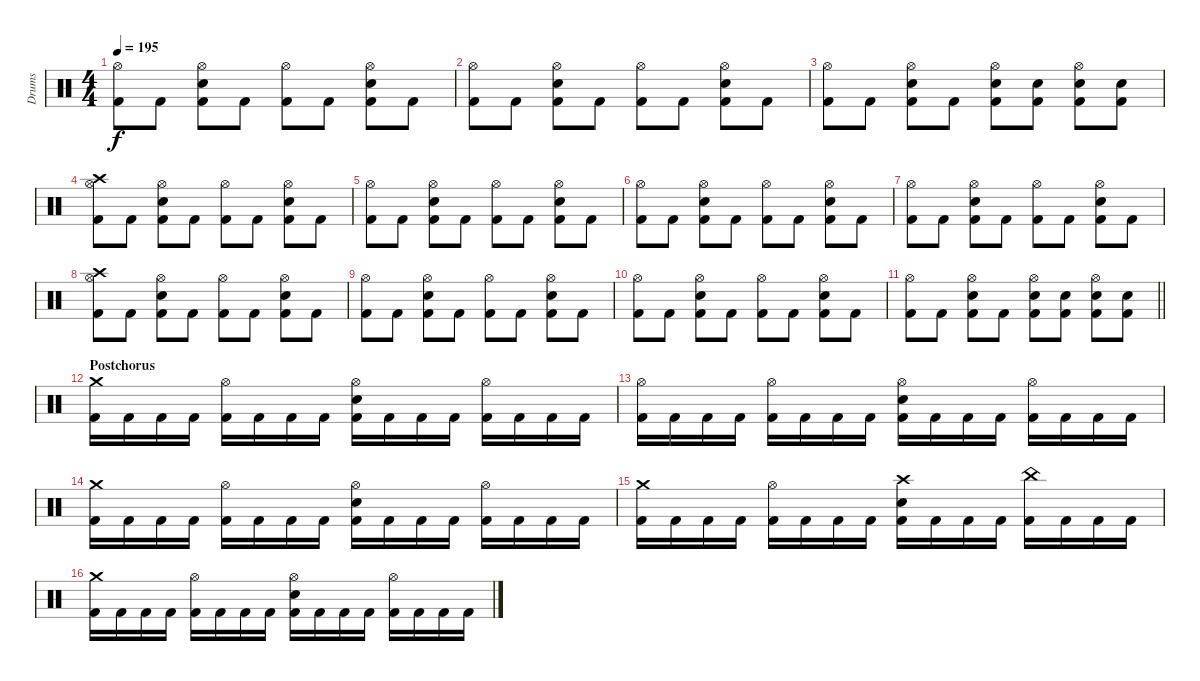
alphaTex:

\track ("Drums" "Drums") {instrument percussion}
\staff {score}
\articulation defaults
\ts (4 4)
\tempo 195
\clef neutral
\ks c
("Hi-Hat (open)" "Kick (hit) 2").8{dy f} "Kick (hit) 2".8 ("Hi-Hat (open)" "Snare (hit) 2" "Kick (hit) 2").8 "Kick (hit) 2".8 ("Hi-Hat (open)" "Kick (hit) 2").8 "Kick (hit) 2".8 ("Hi-Hat (open)" "Snare (hit) 2" "Kick (hit) 2").8 "Kick (hit) 2".8 |
("Hi-Hat (open)" "Kick (hit) 2").8 "Kick (hit) 2".8 ("Hi-Hat (open)" "Snare (hit) 2" "Kick (hit) 2").8 "Kick (hit) 2".8 ("Hi-Hat (open)" "Kick (hit) 2").8 "Kick (hit) 2".8 ("Hi-Hat (open)" "Snare (hit) 2" "Kick (hit) 2").8 "Kick (hit) 2".8 |
("Hi-Hat (open)" "Kick (hit) 2").8 "Kick (hit) 2".8 ("Hi-Hat (open)" "Snare (hit) 2" "Kick (hit) 2").8 "Kick (hit) 2".8 ("Hi-Hat (open)" "Snare (hit) 2" "Kick (hit) 2").8 ("Snare (hit) 2" "Kick (hit) 2").8 ("Hi-Hat (open)" "Snare (hit) 2" "Kick (hit) 2").8 ("Snare (hit) 2" "Kick (hit) 2").8 |
("Crash high (hit)" "Hi-Hat (open)" "Kick (hit) 2").8 "Kick (hit) 2".8 ("Hi-Hat (open)" "Snare (hit) 2" "Kick (hit) 2").8 "Kick (hit) 2".8 ("Hi-Hat (open)" "Kick (hit) 2").8 "Kick (hit) 2".8 ("Hi-Hat (open)" "Snare (hit) 2" "Kick (hit) 2").8 "Kick (hit) 2".8 |
("Hi-Hat (open)" "Kick (hit) 2").8 "Kick (hit) 2".8 ("Hi-Hat (open)" "Snare (hit) 2" "Kick (hit) 2").8 "Kick (hit) 2".8 ("Hi-Hat (open)" "Kick (hit) 2").8 "Kick (hit) 2".8 ("Hi-Hat (open)" "Snare (hit) 2" "Kick (hit) 2").8 "Kick (hit) 2".8 |
("Hi-Hat (open)" "Kick (hit) 2").8 "Kick (hit) 2".8 ("Hi-Hat (open)" "Snare (hit) 2" "Kick (hit) 2").8 "Kick (hit) 2".8 ("Hi-Hat (open)" "Kick (hit) 2").8 "Kick (hit) 2".8 ("Hi-Hat (open)" "Snare (hit) 2" "Kick (hit) 2").8 "Kick (hit) 2".8 |
("Hi-Hat (open)" "Kick (hit) 2").8 "Kick (hit) 2".8 ("Hi-Hat (open)" "Snare (hit) 2" "Kick (hit) 2").8 "Kick (hit) 2".8 ("Hi-Hat (open)" "Kick (hit) 2").8 "Kick (hit) 2".8 ("Hi-Hat (open)" "Snare (hit) 2" "Kick (hit) 2").8 "Kick (hit) 2".8 |
("Crash high (hit)" "Hi-Hat (open)" "Kick (hit) 2").8 "Kick (hit) 2".8 ("Hi-Hat (open)" "Snare (hit) 2" "Kick (hit) 2").8 "Kick (hit) 2".8 ("Hi-Hat (open)" "Kick (hit) 2").8 "Kick (hit) 2".8 ("Hi-Hat (open)" "Snare (hit) 2" "Kick (hit) 2").8 "Kick (hit) 2".8 |
("Hi-Hat (open)" "Kick (hit) 2").8 "Kick (hit) 2".8 ("Hi-Hat (open)" "Snare (hit) 2" "Kick (hit) 2").8 "Kick (hit) 2".8 ("Hi-Hat (open)" "Kick (hit) 2").8 "Kick (hit) 2".8 ("Hi-Hat (open)" "Snare (hit) 2" "Kick (hit) 2").8 "Kick (hit) 2".8 |
("Hi-Hat (open)" "Kick (hit) 2").8 "Kick (hit) 2".8 ("Hi-Hat (open)" "Snare (hit) 2" "Kick (hit) 2").8 "Kick (hit) 2".8 ("Hi-Hat (open)" "Kick (hit) 2").8 "Kick (hit) 2".8 ("Hi-Hat (open)" "Snare (hit) 2" "Kick (hit) 2").8 "Kick (hit) 2".8 |
\barLineRight lightlight
("Hi-Hat (open)" "Kick (hit) 2").8 "Kick (hit) 2".8 ("Hi-Hat (open)" "Snare (hit) 2" "Kick (hit) 2").8 "Kick (hit) 2".8 ("Hi-Hat (open)" "Snare (hit) 2" "Kick (hit) 2").8 ("Snare (hit) 2" "Kick (hit) 2").8 ("Hi-Hat (open)" "Snare (hit) 2" "Kick (hit) 2").8 ("Snare (hit) 2" "Kick (hit) 2").8 |
\section ("" "Postchorus")
("Crash medium (hit)" "Kick (hit) 2").16 "Kick (hit) 2".16 "Kick (hit) 2".16 "Kick (hit) 2".16 ("Hi-Hat (open)" "Kick (hit) 2").16 "Kick (hit) 2".16 "Kick (hit) 2".16 "Kick (hit) 2".16 ("Hi-Hat (open)" "Snare (hit) 2" "Kick (hit) 2").16 "Kick (hit) 2".16 "Kick (hit) 2".16 "Kick (hit) 2".16 ("Hi-Hat (open)" "Kick (hit) 2").16 "Kick (hit) 2".16 "Kick (hit) 2".16 "Kick (hit) 2".16 |
("Hi-Hat (open)" "Kick (hit) 2").16 "Kick (hit) 2".16 "Kick (hit) 2".16 "Kick (hit) 2".16 ("Hi-Hat (open)" "Kick (hit) 2").16 "Kick (hit) 2".16 "Kick (hit) 2".16 "Kick (hit) 2".16 ("Hi-Hat (open)" "Snare (hit) 2" "Kick (hit) 2").16 "Kick (hit) 2".16 "Kick (hit) 2".16 "Kick (hit) 2".16 ("Hi-Hat (open)" "Kick (hit) 2").16 "Kick (hit) 2".16 "Kick (hit) 2".16 "Kick (hit) 2".16 |
("Crash medium (hit)" "Kick (hit) 2").16 "Kick (hit) 2".16 "Kick (hit) 2".16 "Kick (hit) 2".16 ("Hi-Hat (open)" "Kick (hit) 2").16 "Kick (hit) 2".16 "Kick (hit) 2".16 "Kick (hit) 2".16 ("Hi-Hat (open)" "Snare (hit) 2" "Kick (hit) 2").16 "Kick (hit) 2".16 "Kick (hit) 2".16 "Kick (hit) 2".16 ("Hi-Hat (open)" "Kick (hit) 2").16 "Kick (hit) 2".16 "Kick (hit) 2".16 "Kick (hit) 2".16 |
("Crash medium (hit)" "Kick (hit) 2").16 "Kick (hit) 2".16 "Kick (hit) 2".16 "Kick (hit) 2".16 ("Hi-Hat (open)" "Kick (hit) 2").16 "Kick (hit) 2".16 "Kick (hit) 2".16 "Kick (hit) 2".16 ("Crash high (hit)" "Snare (hit) 2" "Kick (hit) 2").16 "Kick (hit) 2".16 "Kick (hit) 2".16 "Kick (hit) 2".16 ("China (hit)" "Kick (hit) 2").16 "Kick (hit) 2".16 "Kick (hit) 2".16 "Kick (hit) 2".16 |
("Crash medium (hit)" "Kick (hit) 2").16 "Kick (hit) 2".16 "Kick (hit) 2".16 "Kick (hit) 2".16 ("Hi-Hat (open)" "Kick (hit) 2").16 "Kick (hit) 2".16 "Kick (hit) 2".16 "Kick (hit) 2".16 ("Hi-Hat (open)" "Snare (hit) 2" "Kick (hit) 2").16 "Kick (hit) 2".16 "Kick (hit) 2".16 "Kick (hit) 2".16 ("Hi-Hat (open)" "Kick (hit) 2").16 "Kick (hit) 2".16 "Kick (hit) 2".16 "Kick (hit) 2".16
